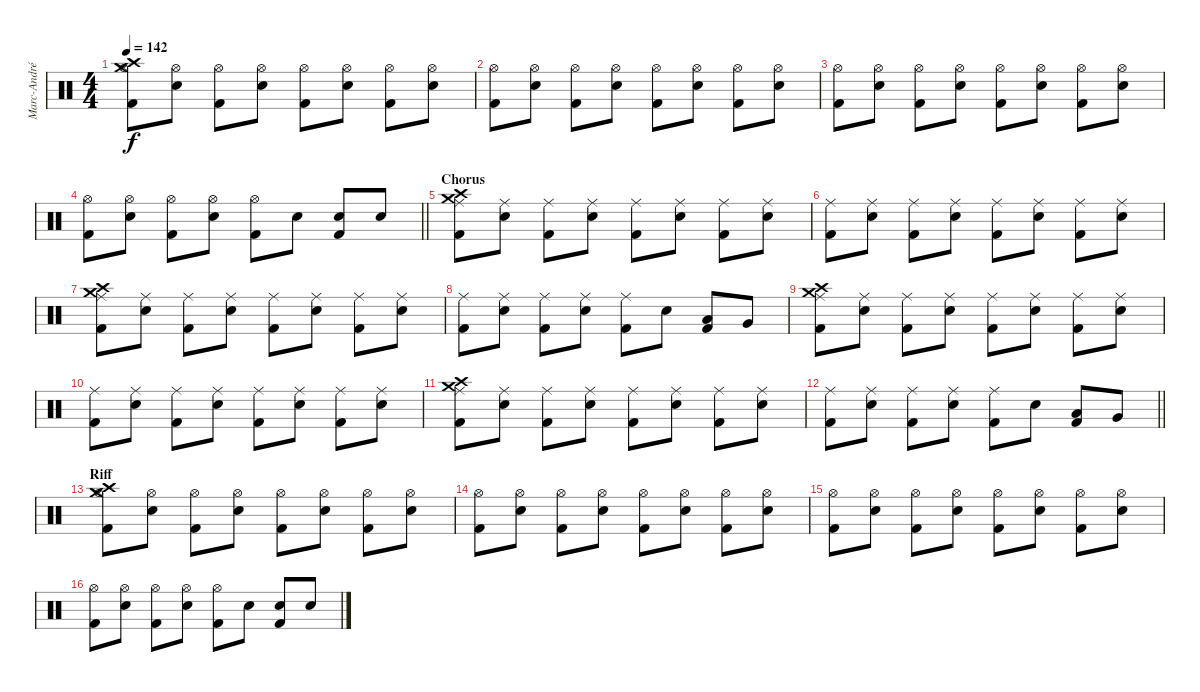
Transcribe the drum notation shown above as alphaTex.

\track ("Marc-André Barabé" "Marc-André") {instrument percussion}
\staff {score}
\articulation defaults
\ts (4 4)
\tempo 142
\clef neutral
\ks c
("Crash high (hit)" "Crash medium (hit)" "Hi-Hat (open)" "Kick (hit) 2").8{dy f} ("Hi-Hat (open)" "Electric Snare (hit)").8 ("Hi-Hat (open)" "Kick (hit) 2"{tr (2 32)}).8 ("Hi-Hat (open)" "Electric Snare (hit)").8 ("Hi-Hat (open)" "Kick (hit) 2").8 ("Hi-Hat (open)" "Electric Snare (hit)").8 ("Hi-Hat (open)" "Kick (hit) 2"{tr (2 32)}).8 ("Hi-Hat (open)" "Electric Snare (hit)").8 |
("Hi-Hat (open)" "Kick (hit) 2").8 ("Hi-Hat (open)" "Electric Snare (hit)").8 ("Hi-Hat (open)" "Kick (hit) 2"{tr (2 32)}).8 ("Hi-Hat (open)" "Electric Snare (hit)").8 ("Hi-Hat (open)" "Kick (hit) 2").8 ("Hi-Hat (open)" "Electric Snare (hit)").8 ("Hi-Hat (open)" "Kick (hit) 2"{tr (2 32)}).8 ("Hi-Hat (open)" "Electric Snare (hit)").8 |
("Hi-Hat (open)" "Kick (hit) 2").8 ("Hi-Hat (open)" "Electric Snare (hit)").8 ("Hi-Hat (open)" "Kick (hit) 2"{tr (2 32)}).8 ("Hi-Hat (open)" "Electric Snare (hit)").8 ("Hi-Hat (open)" "Kick (hit) 2").8 ("Hi-Hat (open)" "Electric Snare (hit)").8 ("Hi-Hat (open)" "Kick (hit) 2"{tr (2 32)}).8 ("Hi-Hat (open)" "Electric Snare (hit)").8 |
\barLineRight lightlight
("Hi-Hat (open)" "Kick (hit) 2").8 ("Hi-Hat (open)" "Electric Snare (hit)").8 ("Hi-Hat (open)" "Kick (hit) 2"{tr (2 32)}).8 ("Hi-Hat (open)" "Electric Snare (hit)").8 ("Hi-Hat (open)" "Kick (hit) 2").8 "Electric Snare (hit)".8 ("Electric Snare (hit)"{tr (4 32)} "Kick (hit) 2"{tr (2 32)}).8 "Electric Snare (hit)"{tr (4 32)}.8 |
\section ("" "Chorus")
("Crash high (hit)" "Crash medium (hit)" "Ride (middle)" "Kick (hit) 2").8 ("Ride (middle)" "Electric Snare (hit)").8 ("Ride (middle)" "Kick (hit) 2"{tr (2 32)}).8 ("Ride (middle)" "Electric Snare (hit)").8 ("Ride (middle)" "Kick (hit) 2").8 ("Ride (middle)" "Electric Snare (hit)").8 ("Ride (middle)" "Kick (hit) 2"{tr (2 32)}).8 ("Ride (middle)" "Electric Snare (hit)").8 |
("Ride (middle)" "Kick (hit) 2").8 ("Ride (middle)" "Electric Snare (hit)").8 ("Ride (middle)" "Kick (hit) 2"{tr (2 32)}).8 ("Ride (middle)" "Electric Snare (hit)").8 ("Ride (middle)" "Kick (hit) 2").8 ("Ride (middle)" "Electric Snare (hit)").8 ("Ride (middle)" "Kick (hit) 2"{tr (2 32)}).8 ("Ride (middle)" "Electric Snare (hit)").8 |
("Crash high (hit)" "Crash medium (hit)" "Ride (middle)" "Kick (hit) 2").8 ("Ride (middle)" "Electric Snare (hit)").8 ("Ride (middle)" "Kick (hit) 2"{tr (2 32)}).8 ("Ride (middle)" "Electric Snare (hit)").8 ("Ride (middle)" "Kick (hit) 2").8 ("Ride (middle)" "Electric Snare (hit)").8 ("Ride (middle)" "Kick (hit) 2"{tr (2 32)}).8 ("Ride (middle)" "Electric Snare (hit)").8 |
("Ride (middle)" "Kick (hit) 2").8 ("Ride (middle)" "Electric Snare (hit)").8 ("Ride (middle)" "Kick (hit) 2"{tr (2 32)}).8 ("Ride (middle)" "Electric Snare (hit)").8 ("Ride (middle)" "Kick (hit) 2").8 "Electric Snare (hit)"{tr (4 32)}.8 ("Low Tom (hit)"{tr (4 32)} "Kick (hit) 2"{tr (2 32)}).8 "Very Low Tom (hit)"{tr (4 32)}.8 |
("Crash high (hit)" "Crash medium (hit)" "Ride (middle)" "Kick (hit) 2").8 ("Ride (middle)" "Electric Snare (hit)").8 ("Ride (middle)" "Kick (hit) 2"{tr (2 32)}).8 ("Ride (middle)" "Electric Snare (hit)").8 ("Ride (middle)" "Kick (hit) 2").8 ("Ride (middle)" "Electric Snare (hit)").8 ("Ride (middle)" "Kick (hit) 2"{tr (2 32)}).8 ("Ride (middle)" "Electric Snare (hit)").8 |
("Ride (middle)" "Kick (hit) 2").8 ("Ride (middle)" "Electric Snare (hit)").8 ("Ride (middle)" "Kick (hit) 2"{tr (2 32)}).8 ("Ride (middle)" "Electric Snare (hit)").8 ("Ride (middle)" "Kick (hit) 2").8 ("Ride (middle)" "Electric Snare (hit)").8 ("Ride (middle)" "Kick (hit) 2"{tr (2 32)}).8 ("Ride (middle)" "Electric Snare (hit)").8 |
("Crash high (hit)" "Crash medium (hit)" "Ride (middle)" "Kick (hit) 2").8 ("Ride (middle)" "Electric Snare (hit)").8 ("Ride (middle)" "Kick (hit) 2"{tr (2 32)}).8 ("Ride (middle)" "Electric Snare (hit)").8 ("Ride (middle)" "Kick (hit) 2").8 ("Ride (middle)" "Electric Snare (hit)").8 ("Ride (middle)" "Kick (hit) 2"{tr (2 32)}).8 ("Ride (middle)" "Electric Snare (hit)").8 |
\barLineRight lightlight
("Ride (middle)" "Kick (hit) 2").8 ("Ride (middle)" "Electric Snare (hit)").8 ("Ride (middle)" "Kick (hit) 2"{tr (2 32)}).8 ("Ride (middle)" "Electric Snare (hit)").8 ("Ride (middle)" "Kick (hit) 2").8 "Electric Snare (hit)"{tr (4 32)}.8 ("Low Tom (hit)"{tr (4 32)} "Kick (hit) 2"{tr (2 32)}).8 "Very Low Tom (hit)"{tr (4 32)}.8 |
\section ("" "Riff")
("Crash high (hit)" "Crash medium (hit)" "Hi-Hat (open)" "Kick (hit) 2").8 ("Hi-Hat (open)" "Electric Snare (hit)").8 ("Hi-Hat (open)" "Kick (hit) 2"{tr (2 32)}).8 ("Hi-Hat (open)" "Electric Snare (hit)").8 ("Hi-Hat (open)" "Kick (hit) 2").8 ("Hi-Hat (open)" "Electric Snare (hit)").8 ("Hi-Hat (open)" "Kick (hit) 2"{tr (2 32)}).8 ("Hi-Hat (open)" "Electric Snare (hit)").8 |
("Hi-Hat (open)" "Kick (hit) 2").8 ("Hi-Hat (open)" "Electric Snare (hit)").8 ("Hi-Hat (open)" "Kick (hit) 2"{tr (2 32)}).8 ("Hi-Hat (open)" "Electric Snare (hit)").8 ("Hi-Hat (open)" "Kick (hit) 2").8 ("Hi-Hat (open)" "Electric Snare (hit)").8 ("Hi-Hat (open)" "Kick (hit) 2"{tr (2 32)}).8 ("Hi-Hat (open)" "Electric Snare (hit)").8 |
("Hi-Hat (open)" "Kick (hit) 2").8 ("Hi-Hat (open)" "Electric Snare (hit)").8 ("Hi-Hat (open)" "Kick (hit) 2"{tr (2 32)}).8 ("Hi-Hat (open)" "Electric Snare (hit)").8 ("Hi-Hat (open)" "Kick (hit) 2").8 ("Hi-Hat (open)" "Electric Snare (hit)").8 ("Hi-Hat (open)" "Kick (hit) 2"{tr (2 32)}).8 ("Hi-Hat (open)" "Electric Snare (hit)").8 |
("Hi-Hat (open)" "Kick (hit) 2").8 ("Hi-Hat (open)" "Electric Snare (hit)").8 ("Hi-Hat (open)" "Kick (hit) 2"{tr (2 32)}).8 ("Hi-Hat (open)" "Electric Snare (hit)").8 ("Hi-Hat (open)" "Kick (hit) 2").8 "Electric Snare (hit)"{tr (4 32)}.8 ("Electric Snare (hit)"{tr (4 32)} "Kick (hit) 2"{tr (2 32)}).8 "Electric Snare (hit)"{tr (4 32)}.8
